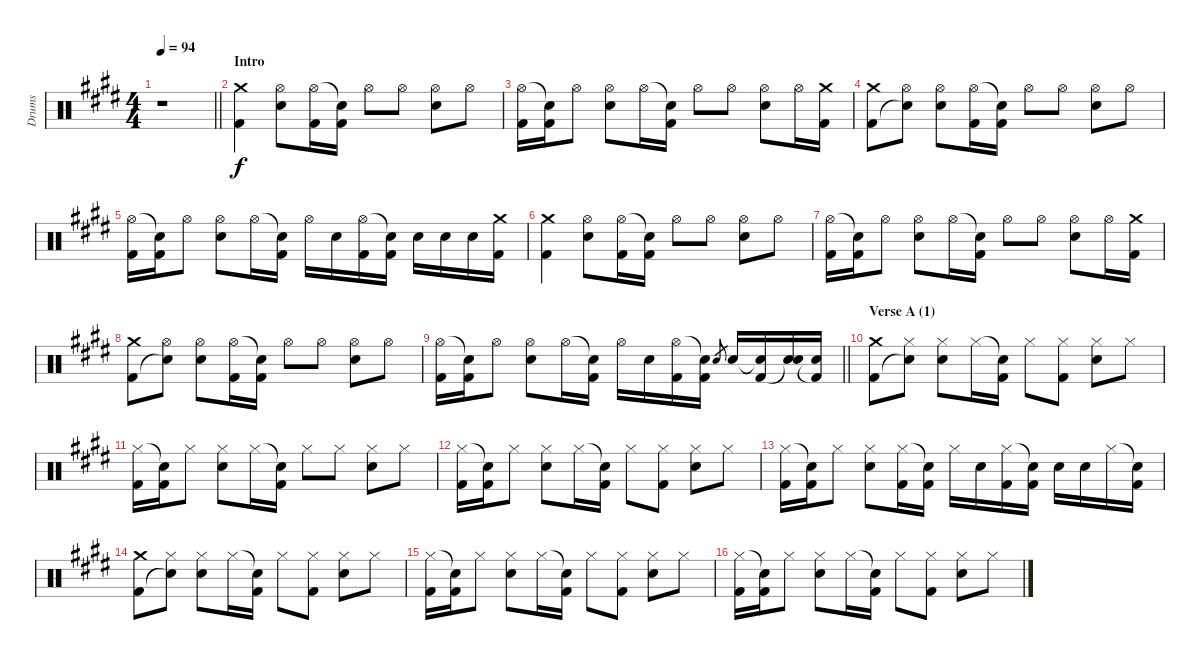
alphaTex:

\track ("Drums" "Drums") {instrument percussion}
\staff {score}
\articulation defaults
\ts (4 4)
\tempo 94
\clef neutral
\barLineRight lightlight
\ks c#minor
r.1{dy f} |
\section ("" "Intro")
("Crash medium (hit)" "Kick (hit) 2").4 ("Hi-Hat (open)" "Electric Snare (hit)").8 ("Hi-Hat (open)" "Kick (hit) 2").16 ("Snare (hit)"{t} "Kick (hit) 2").16 "Hi-Hat (open)".8 "Hi-Hat (open)".8 ("Hi-Hat (open)" "Electric Snare (hit)").8 "Hi-Hat (open)".8 |
("Hi-Hat (open)" "Kick (hit) 2").16 ("Snare (hit)"{t} "Kick (hit) 2").16 "Hi-Hat (open)".8 ("Hi-Hat (open)" "Electric Snare (hit)").8 "Hi-Hat (open)".16 ("Snare (hit)"{t} "Kick (hit) 2").16 "Hi-Hat (open)".8 "Hi-Hat (open)".8 ("Hi-Hat (open)" "Electric Snare (hit)").8 "Hi-Hat (open)".16 ("Crash medium (hit)" "Kick (hit) 2").16 |
("Crash medium (hit)" "Kick (hit) 2").8 ("Hi-Hat (open)" "Snare (hit)"{t}).8 ("Hi-Hat (open)" "Electric Snare (hit)").8 ("Hi-Hat (open)" "Kick (hit) 2").16 ("Snare (hit)"{t} "Kick (hit) 2").16 "Hi-Hat (open)".8 "Hi-Hat (open)".8 ("Hi-Hat (open)" "Electric Snare (hit)").8 "Hi-Hat (open)".8 |
("Hi-Hat (open)" "Kick (hit) 2").16 ("Snare (hit)"{t} "Kick (hit) 2").16 "Hi-Hat (open)".8 ("Hi-Hat (open)" "Electric Snare (hit)").8 "Hi-Hat (open)".16 ("Snare (hit)"{t} "Kick (hit) 2").16 "Hi-Hat (open)".16 "Electric Snare (hit)".16 ("Hi-Hat (open)" "Kick (hit) 2").16 ("Snare (hit)"{t} "Kick (hit) 2").16 "Electric Snare (hit)".16 "Electric Snare (hit)".16 "Electric Snare (hit)".16 ("Crash medium (hit)" "Kick (hit) 2").16 |
("Crash medium (hit)" "Kick (hit) 2").4 ("Hi-Hat (open)" "Electric Snare (hit)").8 ("Hi-Hat (open)" "Kick (hit) 2").16 ("Snare (hit)"{t} "Kick (hit) 2").16 "Hi-Hat (open)".8 "Hi-Hat (open)".8 ("Hi-Hat (open)" "Electric Snare (hit)").8 "Hi-Hat (open)".8 |
("Hi-Hat (open)" "Kick (hit) 2").16 ("Snare (hit)"{t} "Kick (hit) 2").16 "Hi-Hat (open)".8 ("Hi-Hat (open)" "Electric Snare (hit)").8 "Hi-Hat (open)".16 ("Snare (hit)"{t} "Kick (hit) 2").16 "Hi-Hat (open)".8 "Hi-Hat (open)".8 ("Hi-Hat (open)" "Electric Snare (hit)").8 "Hi-Hat (open)".16 ("Crash medium (hit)" "Kick (hit) 2").16 |
("Crash medium (hit)" "Kick (hit) 2").8 ("Hi-Hat (open)" "Snare (hit)"{t}).8 ("Hi-Hat (open)" "Electric Snare (hit)").8 ("Hi-Hat (open)" "Kick (hit) 2").16 ("Snare (hit)"{t} "Kick (hit) 2").16 "Hi-Hat (open)".8 "Hi-Hat (open)".8 ("Hi-Hat (open)" "Electric Snare (hit)").8 "Hi-Hat (open)".8 |
\barLineRight lightlight
("Hi-Hat (open)" "Kick (hit) 2").16 ("Snare (hit)"{t} "Kick (hit) 2").16 "Hi-Hat (open)".8 ("Hi-Hat (open)" "Electric Snare (hit)").8 "Hi-Hat (open)".16 ("Snare (hit)"{t} "Kick (hit) 2").16 "Hi-Hat (open)".16 "Electric Snare (hit)".16 ("Hi-Hat (open)" "Kick (hit) 2").16 ("Snare (hit)"{t} "Kick (hit) 2").16 "Electric Snare (hit)".8{gr} "Electric Snare (hit)".16 ("Electric Snare (hit)"{t} "Kick (hit) 2").16 ("Electric Snare (hit)" "Snare (hit)"{t}).16 ("Electric Snare (hit)" "Kick (hit) 2"{t}).16 |
\section ("" "Verse A (1)")
("Crash medium (hit)" "Kick (hit) 2").8 ("Hi-Hat (closed)" "Snare (hit)"{t}).8 ("Hi-Hat (closed)" "Electric Snare (hit)").8 "Hi-Hat (closed)".16 ("Snare (hit)"{t} "Kick (hit) 2").16 "Hi-Hat (closed)".8 ("Hi-Hat (closed)" "Kick (hit) 2").8 ("Hi-Hat (closed)" "Electric Snare (hit)").8 "Hi-Hat (closed)".8 |
("Hi-Hat (closed)" "Kick (hit) 2").16 ("Snare (hit)"{t} "Kick (hit) 2").16 "Hi-Hat (closed)".8 ("Hi-Hat (closed)" "Electric Snare (hit)").8 "Hi-Hat (closed)".16 ("Snare (hit)"{t} "Kick (hit) 2").16 "Hi-Hat (closed)".8 "Hi-Hat (closed)".8 ("Hi-Hat (closed)" "Electric Snare (hit)").8 "Hi-Hat (closed)".8 |
("Hi-Hat (closed)" "Kick (hit) 2").16 ("Snare (hit)"{t} "Kick (hit) 2").16 "Hi-Hat (closed)".8 ("Hi-Hat (closed)" "Electric Snare (hit)").8 "Hi-Hat (closed)".16 ("Snare (hit)"{t} "Kick (hit) 2").16 "Hi-Hat (closed)".8 ("Hi-Hat (closed)" "Kick (hit) 2").8 ("Hi-Hat (closed)" "Electric Snare (hit)").8 "Hi-Hat (closed)".8 |
("Hi-Hat (closed)" "Kick (hit) 2").16 ("Snare (hit)"{t} "Kick (hit) 2").16 "Hi-Hat (closed)".8 ("Hi-Hat (closed)" "Electric Snare (hit)").8 ("Hi-Hat (closed)" "Kick (hit) 2").16 ("Snare (hit)"{t} "Kick (hit) 2").16 "Hi-Hat (closed)".16 "Electric Snare (hit)".16 ("Hi-Hat (closed)" "Kick (hit) 2").16 ("Snare (hit)"{t} "Kick (hit) 2").16 "Electric Snare (hit)".16 "Electric Snare (hit)".16 "Hi-Hat (closed)".16 ("Snare (hit)"{t} "Kick (hit) 2").16 |
("Crash medium (hit)" "Kick (hit) 2").8 ("Hi-Hat (closed)" "Snare (hit)"{t}).8 ("Hi-Hat (closed)" "Electric Snare (hit)").8 "Hi-Hat (closed)".16 ("Snare (hit)"{t} "Kick (hit) 2").16 "Hi-Hat (closed)".8 ("Hi-Hat (closed)" "Kick (hit) 2").8 ("Hi-Hat (closed)" "Electric Snare (hit)").8 "Hi-Hat (closed)".8 |
("Hi-Hat (closed)" "Kick (hit) 2").16 ("Snare (hit)"{t} "Kick (hit) 2").16 "Hi-Hat (closed)".8 ("Hi-Hat (closed)" "Electric Snare (hit)").8 "Hi-Hat (closed)".16 ("Snare (hit)"{t} "Kick (hit) 2").16 "Hi-Hat (closed)".8 ("Hi-Hat (closed)" "Kick (hit) 2").8 ("Hi-Hat (closed)" "Electric Snare (hit)").8 "Hi-Hat (closed)".8 |
("Hi-Hat (closed)" "Kick (hit) 2").16 ("Snare (hit)"{t} "Kick (hit) 2").16 "Hi-Hat (closed)".8 ("Hi-Hat (closed)" "Electric Snare (hit)").8 "Hi-Hat (closed)".16 ("Snare (hit)"{t} "Kick (hit) 2").16 "Hi-Hat (closed)".8 ("Hi-Hat (closed)" "Kick (hit) 2").8 ("Hi-Hat (closed)" "Electric Snare (hit)").8 "Hi-Hat (closed)".8
